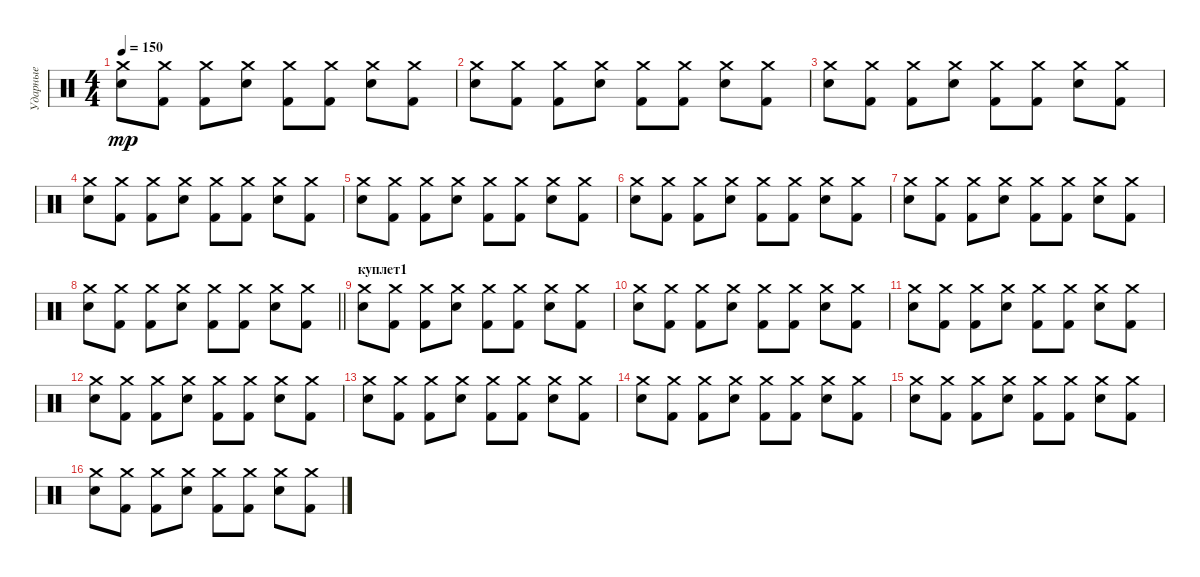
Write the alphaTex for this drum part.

\track ("Ударные" "Ударные") {instrument percussion}
\staff {score}
\articulation defaults
\ts (4 4)
\tempo 150
\clef neutral
\ks c
("Crash medium (hit)" "Snare (hit) 2").8{dy mp volume 13} ("Crash medium (hit)" "Kick (hit) 2").8 ("Crash medium (hit)" "Kick (hit) 2").8 ("Crash medium (hit)" "Snare (hit) 2").8 ("Crash medium (hit)" "Kick (hit) 2").8 ("Crash medium (hit)" "Kick (hit) 2").8 ("Crash medium (hit)" "Snare (hit) 2").8 ("Crash medium (hit)" "Kick (hit) 2").8 |
("Crash medium (hit)" "Snare (hit) 2").8 ("Crash medium (hit)" "Kick (hit) 2").8 ("Crash medium (hit)" "Kick (hit) 2").8 ("Crash medium (hit)" "Snare (hit) 2").8 ("Crash medium (hit)" "Kick (hit) 2").8 ("Crash medium (hit)" "Kick (hit) 2").8 ("Crash medium (hit)" "Snare (hit) 2").8 ("Crash medium (hit)" "Kick (hit) 2").8 |
("Crash medium (hit)" "Snare (hit) 2").8 ("Crash medium (hit)" "Kick (hit) 2").8 ("Crash medium (hit)" "Kick (hit) 2").8 ("Crash medium (hit)" "Snare (hit) 2").8 ("Crash medium (hit)" "Kick (hit) 2").8 ("Crash medium (hit)" "Kick (hit) 2").8 ("Crash medium (hit)" "Snare (hit) 2").8 ("Crash medium (hit)" "Kick (hit) 2").8 |
("Crash medium (hit)" "Snare (hit) 2").8 ("Crash medium (hit)" "Kick (hit) 2").8 ("Crash medium (hit)" "Kick (hit) 2").8 ("Crash medium (hit)" "Snare (hit) 2").8 ("Crash medium (hit)" "Kick (hit) 2").8 ("Crash medium (hit)" "Kick (hit) 2").8 ("Crash medium (hit)" "Snare (hit) 2").8 ("Crash medium (hit)" "Kick (hit) 2").8 |
("Crash medium (hit)" "Snare (hit) 2").8 ("Crash medium (hit)" "Kick (hit) 2").8 ("Crash medium (hit)" "Kick (hit) 2").8 ("Crash medium (hit)" "Snare (hit) 2").8 ("Crash medium (hit)" "Kick (hit) 2").8 ("Crash medium (hit)" "Kick (hit) 2").8 ("Crash medium (hit)" "Snare (hit) 2").8 ("Crash medium (hit)" "Kick (hit) 2").8 |
("Crash medium (hit)" "Snare (hit) 2").8 ("Crash medium (hit)" "Kick (hit) 2").8 ("Crash medium (hit)" "Kick (hit) 2").8 ("Crash medium (hit)" "Snare (hit) 2").8 ("Crash medium (hit)" "Kick (hit) 2").8 ("Crash medium (hit)" "Kick (hit) 2").8 ("Crash medium (hit)" "Snare (hit) 2").8 ("Crash medium (hit)" "Kick (hit) 2").8 |
("Crash medium (hit)" "Snare (hit) 2").8 ("Crash medium (hit)" "Kick (hit) 2").8 ("Crash medium (hit)" "Kick (hit) 2").8 ("Crash medium (hit)" "Snare (hit) 2").8 ("Crash medium (hit)" "Kick (hit) 2").8 ("Crash medium (hit)" "Kick (hit) 2").8 ("Crash medium (hit)" "Snare (hit) 2").8 ("Crash medium (hit)" "Kick (hit) 2").8 |
\barLineRight lightlight
("Crash medium (hit)" "Snare (hit) 2").8 ("Crash medium (hit)" "Kick (hit) 2").8 ("Crash medium (hit)" "Kick (hit) 2").8 ("Crash medium (hit)" "Snare (hit) 2").8 ("Crash medium (hit)" "Kick (hit) 2").8 ("Crash medium (hit)" "Kick (hit) 2").8 ("Crash medium (hit)" "Snare (hit) 2").8 ("Crash medium (hit)" "Kick (hit) 2").8 |
\section ("" "куплет1")
("Crash medium (hit)" "Snare (hit) 2").8 ("Crash medium (hit)" "Kick (hit) 2").8 ("Crash medium (hit)" "Kick (hit) 2").8 ("Crash medium (hit)" "Snare (hit) 2").8 ("Crash medium (hit)" "Kick (hit) 2").8 ("Crash medium (hit)" "Kick (hit) 2").8 ("Crash medium (hit)" "Snare (hit) 2").8 ("Crash medium (hit)" "Kick (hit) 2").8 |
("Crash medium (hit)" "Snare (hit) 2").8 ("Crash medium (hit)" "Kick (hit) 2").8 ("Crash medium (hit)" "Kick (hit) 2").8 ("Crash medium (hit)" "Snare (hit) 2").8 ("Crash medium (hit)" "Kick (hit) 2").8 ("Crash medium (hit)" "Kick (hit) 2").8 ("Crash medium (hit)" "Snare (hit) 2").8 ("Crash medium (hit)" "Kick (hit) 2").8 |
("Crash medium (hit)" "Snare (hit) 2").8 ("Crash medium (hit)" "Kick (hit) 2").8 ("Crash medium (hit)" "Kick (hit) 2").8 ("Crash medium (hit)" "Snare (hit) 2").8 ("Crash medium (hit)" "Kick (hit) 2").8 ("Crash medium (hit)" "Kick (hit) 2").8 ("Crash medium (hit)" "Snare (hit) 2").8 ("Crash medium (hit)" "Kick (hit) 2").8 |
("Crash medium (hit)" "Snare (hit) 2").8 ("Crash medium (hit)" "Kick (hit) 2").8 ("Crash medium (hit)" "Kick (hit) 2").8 ("Crash medium (hit)" "Snare (hit) 2").8 ("Crash medium (hit)" "Kick (hit) 2").8 ("Crash medium (hit)" "Kick (hit) 2").8 ("Crash medium (hit)" "Snare (hit) 2").8 ("Crash medium (hit)" "Kick (hit) 2").8 |
("Crash medium (hit)" "Snare (hit) 2").8 ("Crash medium (hit)" "Kick (hit) 2").8 ("Crash medium (hit)" "Kick (hit) 2").8 ("Crash medium (hit)" "Snare (hit) 2").8 ("Crash medium (hit)" "Kick (hit) 2").8 ("Crash medium (hit)" "Kick (hit) 2").8 ("Crash medium (hit)" "Snare (hit) 2").8 ("Crash medium (hit)" "Kick (hit) 2").8 |
("Crash medium (hit)" "Snare (hit) 2").8 ("Crash medium (hit)" "Kick (hit) 2").8 ("Crash medium (hit)" "Kick (hit) 2").8 ("Crash medium (hit)" "Snare (hit) 2").8 ("Crash medium (hit)" "Kick (hit) 2").8 ("Crash medium (hit)" "Kick (hit) 2").8 ("Crash medium (hit)" "Snare (hit) 2").8 ("Crash medium (hit)" "Kick (hit) 2").8 |
("Crash medium (hit)" "Snare (hit) 2").8 ("Crash medium (hit)" "Kick (hit) 2").8 ("Crash medium (hit)" "Kick (hit) 2").8 ("Crash medium (hit)" "Snare (hit) 2").8 ("Crash medium (hit)" "Kick (hit) 2").8 ("Crash medium (hit)" "Kick (hit) 2").8 ("Crash medium (hit)" "Snare (hit) 2").8 ("Crash medium (hit)" "Kick (hit) 2").8 |
("Crash medium (hit)" "Snare (hit) 2").8 ("Crash medium (hit)" "Kick (hit) 2").8 ("Crash medium (hit)" "Kick (hit) 2").8 ("Crash medium (hit)" "Snare (hit) 2").8 ("Crash medium (hit)" "Kick (hit) 2").8 ("Crash medium (hit)" "Kick (hit) 2").8 ("Crash medium (hit)" "Snare (hit) 2").8 ("Crash medium (hit)" "Kick (hit) 2").8
